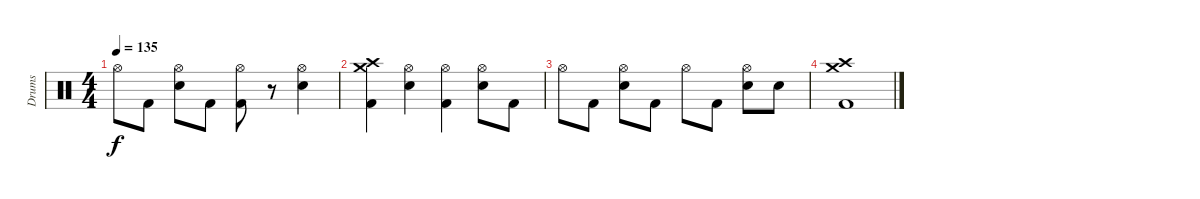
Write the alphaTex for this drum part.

\track ("Drums" "Drums") {instrument percussion}
\staff {score}
\articulation defaults
\ts (4 4)
\tempo 135
\clef neutral
\ks c "Hi-Hat (open)".8{dy f} "Kick (hit) 2".8
("Hi-Hat (open)" "Electric Snare (hit)").8 "Kick (hit) 2".8 ("Hi-Hat (open)" "Kick (hit) 2").8 r.8 ("Hi-Hat (open)" "Electric Snare (hit)").4 |
("Crash high (hit)" "Crash medium (hit)" "Kick (hit) 2").4 ("Hi-Hat (open)" "Electric Snare (hit)").4 ("Hi-Hat (open)" "Kick (hit) 2").4 ("Hi-Hat (open)" "Electric Snare (hit)").8 "Kick (hit) 2".8 |
"Hi-Hat (open)".8 "Kick (hit) 2".8 ("Hi-Hat (open)" "Electric Snare (hit)").8 "Kick (hit) 2".8 "Hi-Hat (open)".8 "Kick (hit) 2".8 ("Hi-Hat (open)" "Electric Snare (hit)").8 "Electric Snare (hit)".8 |
("Crash high (hit)" "Crash medium (hit)" "Kick (hit) 2").1
